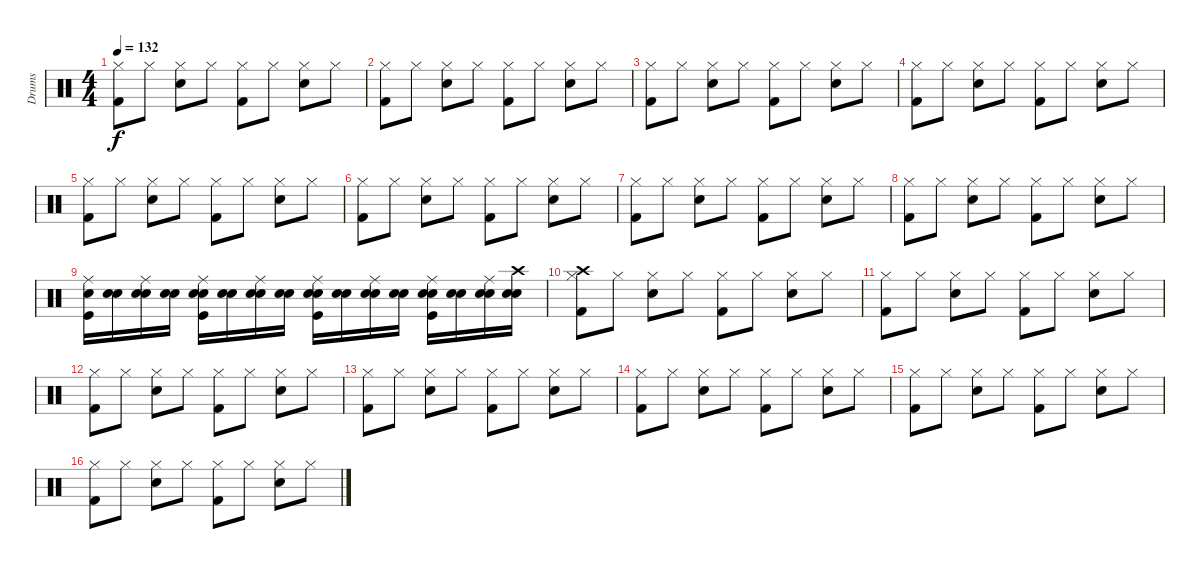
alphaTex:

\track ("Drums" "Drums") {instrument percussion}
\staff {score}
\articulation defaults
\ts (4 4)
\tempo 132
\clef neutral
\ks c
("Hi-Hat (closed)" "Kick (hit) 2").8{dy f} "Hi-Hat (closed)".8 ("Hi-Hat (closed)" "Snare (hit) 2").8 "Hi-Hat (closed)".8 ("Hi-Hat (closed)" "Kick (hit) 2").8 "Hi-Hat (closed)".8 ("Hi-Hat (closed)" "Snare (hit) 2").8 "Hi-Hat (closed)".8 |
("Hi-Hat (closed)" "Kick (hit) 2").8 "Hi-Hat (closed)".8 ("Hi-Hat (closed)" "Snare (hit) 2").8 "Hi-Hat (closed)".8 ("Hi-Hat (closed)" "Kick (hit) 2").8 "Hi-Hat (closed)".8 ("Hi-Hat (closed)" "Snare (hit) 2").8 "Hi-Hat (closed)".8 |
("Hi-Hat (closed)" "Kick (hit) 2").8 "Hi-Hat (closed)".8 ("Hi-Hat (closed)" "Snare (hit) 2").8 "Hi-Hat (closed)".8 ("Hi-Hat (closed)" "Kick (hit) 2").8 "Hi-Hat (closed)".8 ("Hi-Hat (closed)" "Snare (hit) 2").8 "Hi-Hat (closed)".8 |
("Hi-Hat (closed)" "Kick (hit) 2").8 "Hi-Hat (closed)".8 ("Hi-Hat (closed)" "Snare (hit) 2").8 "Hi-Hat (closed)".8 ("Hi-Hat (closed)" "Kick (hit) 2").8 "Hi-Hat (closed)".8 ("Hi-Hat (closed)" "Snare (hit) 2").8 "Hi-Hat (closed)".8 |
("Hi-Hat (closed)" "Kick (hit) 2").8 "Hi-Hat (closed)".8 ("Hi-Hat (closed)" "Snare (hit) 2").8 "Hi-Hat (closed)".8 ("Hi-Hat (closed)" "Kick (hit) 2").8 "Hi-Hat (closed)".8 ("Hi-Hat (closed)" "Snare (hit) 2").8 "Hi-Hat (closed)".8 |
("Hi-Hat (closed)" "Kick (hit) 2").8 "Hi-Hat (closed)".8 ("Hi-Hat (closed)" "Snare (hit) 2").8 "Hi-Hat (closed)".8 ("Hi-Hat (closed)" "Kick (hit) 2").8 "Hi-Hat (closed)".8 ("Hi-Hat (closed)" "Snare (hit) 2").8 "Hi-Hat (closed)".8 |
("Hi-Hat (closed)" "Kick (hit) 2").8 "Hi-Hat (closed)".8 ("Hi-Hat (closed)" "Snare (hit) 2").8 "Hi-Hat (closed)".8 ("Hi-Hat (closed)" "Kick (hit) 2").8 "Hi-Hat (closed)".8 ("Hi-Hat (closed)" "Snare (hit) 2").8 "Hi-Hat (closed)".8 |
("Hi-Hat (closed)" "Kick (hit) 2").8 "Hi-Hat (closed)".8 ("Hi-Hat (closed)" "Snare (hit) 2").8 "Hi-Hat (closed)".8 ("Hi-Hat (closed)" "Kick (hit) 2").8 "Hi-Hat (closed)".8 ("Hi-Hat (closed)" "Snare (hit) 2").8 "Hi-Hat (closed)".8 |
("Snare (hit) 2" "Kick (hit)" "Ride (middle)").16 ("Snare (hit)" "Snare (hit) 2").16 ("Snare (hit)" "Snare (hit) 2" "Ride (middle)").16 ("Snare (hit)" "Snare (hit) 2").16 ("Snare (hit)" "Snare (hit) 2" "Kick (hit)" "Ride (middle)").16 ("Snare (hit)" "Snare (hit) 2").16 ("Snare (hit)" "Snare (hit) 2" "Ride (middle)").16 ("Snare (hit)" "Snare (hit) 2").16 ("Snare (hit)" "Snare (hit) 2" "Kick (hit)" "Ride (middle)").16 ("Snare (hit)" "Snare (hit) 2").16 ("Snare (hit)" "Snare (hit) 2" "Ride (middle)").16 ("Snare (hit)" "Snare (hit) 2").16 ("Snare (hit)" "Snare (hit) 2" "Kick (hit)" "Ride (middle)").16 ("Snare (hit)" "Snare (hit) 2").16 ("Snare (hit)" "Snare (hit) 2" "Ride (middle)").16 ("Snare (hit)" "Snare (hit) 2" "Crash high (hit)").16 |
("Hi-Hat (closed)" "Crash high (hit)" "Kick (hit) 2").8 "Hi-Hat (closed)".8 ("Hi-Hat (closed)" "Snare (hit) 2").8 "Hi-Hat (closed)".8 ("Hi-Hat (closed)" "Kick (hit) 2").8 "Hi-Hat (closed)".8 ("Hi-Hat (closed)" "Snare (hit) 2").8 "Hi-Hat (closed)".8 |
("Hi-Hat (closed)" "Kick (hit) 2").8 "Hi-Hat (closed)".8 ("Hi-Hat (closed)" "Snare (hit) 2").8 "Hi-Hat (closed)".8 ("Hi-Hat (closed)" "Kick (hit) 2").8 "Hi-Hat (closed)".8 ("Hi-Hat (closed)" "Snare (hit) 2").8 "Hi-Hat (closed)".8 |
("Hi-Hat (closed)" "Kick (hit) 2").8 "Hi-Hat (closed)".8 ("Hi-Hat (closed)" "Snare (hit) 2").8 "Hi-Hat (closed)".8 ("Hi-Hat (closed)" "Kick (hit) 2").8 "Hi-Hat (closed)".8 ("Hi-Hat (closed)" "Snare (hit) 2").8 "Hi-Hat (closed)".8 |
("Hi-Hat (closed)" "Kick (hit) 2").8 "Hi-Hat (closed)".8 ("Hi-Hat (closed)" "Snare (hit) 2").8 "Hi-Hat (closed)".8 ("Hi-Hat (closed)" "Kick (hit) 2").8 "Hi-Hat (closed)".8 ("Hi-Hat (closed)" "Snare (hit) 2").8 "Hi-Hat (closed)".8 |
("Hi-Hat (closed)" "Kick (hit) 2").8 "Hi-Hat (closed)".8 ("Hi-Hat (closed)" "Snare (hit) 2").8 "Hi-Hat (closed)".8 ("Hi-Hat (closed)" "Kick (hit) 2").8 "Hi-Hat (closed)".8 ("Hi-Hat (closed)" "Snare (hit) 2").8 "Hi-Hat (closed)".8 |
("Hi-Hat (closed)" "Kick (hit) 2").8 "Hi-Hat (closed)".8 ("Hi-Hat (closed)" "Snare (hit) 2").8 "Hi-Hat (closed)".8 ("Hi-Hat (closed)" "Kick (hit) 2").8 "Hi-Hat (closed)".8 ("Hi-Hat (closed)" "Snare (hit) 2").8 "Hi-Hat (closed)".8 |
("Hi-Hat (closed)" "Kick (hit) 2").8 "Hi-Hat (closed)".8 ("Hi-Hat (closed)" "Snare (hit) 2").8 "Hi-Hat (closed)".8 ("Hi-Hat (closed)" "Kick (hit) 2").8 "Hi-Hat (closed)".8 ("Hi-Hat (closed)" "Snare (hit) 2").8 "Hi-Hat (closed)".8
